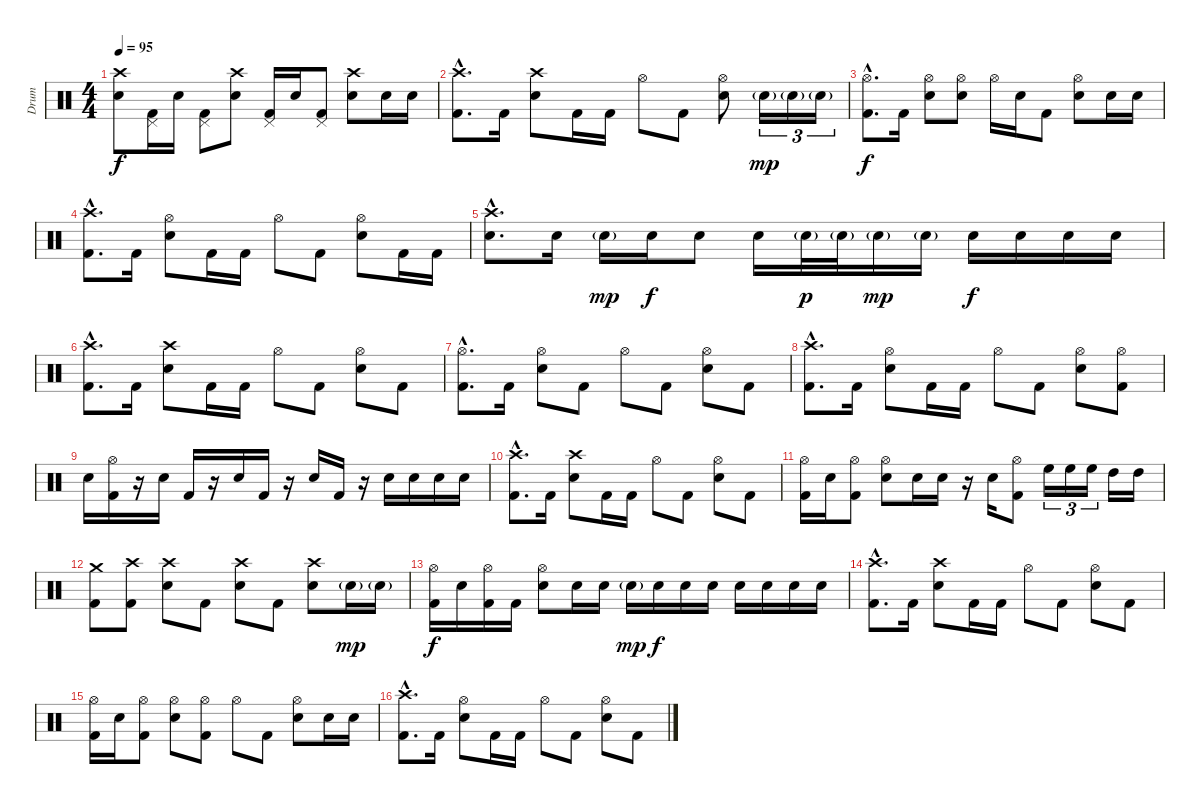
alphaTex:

\track ("Drum" "Drum") {instrument percussion}
\staff {score}
\articulation defaults
\ts (4 4)
\tempo 95
\clef neutral
\ks c
("Crash high (hit)" "Electric Snare (hit)").8{dy f} ("Pedal Hi-Hat (hit)" "Kick (hit) 2").16 "Electric Snare (hit)".16 ("Pedal Hi-Hat (hit)" "Kick (hit) 2").8 ("Crash high (hit)" "Electric Snare (hit)").8 ("Pedal Hi-Hat (hit)" "Kick (hit) 2").16 "Electric Snare (hit)".16 ("Pedal Hi-Hat (hit)" "Kick (hit) 2").8 ("Crash high (hit)" "Electric Snare (hit)").8 "Electric Snare (hit)".16 "Electric Snare (hit)".16 |
("Crash high (hit)"{hac} "Kick (hit) 2"{hac}).8{d} "Kick (hit) 2".16 ("Crash high (hit)" "Electric Snare (hit)").8 "Kick (hit) 2".16 "Kick (hit) 2".16 "Hi-Hat (open)".8 "Kick (hit) 2".8 ("Hi-Hat (open)" "Electric Snare (hit)").8 "Electric Snare (hit)"{g}.16{tu (3 2) dy mp} "Electric Snare (hit)"{g}.16{tu (3 2)} "Electric Snare (hit)"{g}.16{tu (3 2)} |
("Hi-Hat (open)"{hac} "Kick (hit) 2"{hac}).8{d dy f} "Kick (hit) 2".16 ("Hi-Hat (open)" "Electric Snare (hit)").8 ("Hi-Hat (open)" "Electric Snare (hit)").8 "Hi-Hat (open)".16 "Electric Snare (hit)".16 "Kick (hit) 2".8 ("Hi-Hat (open)" "Electric Snare (hit)").8 "Electric Snare (hit)".16 "Electric Snare (hit)".16 |
("Crash high (hit)"{hac} "Kick (hit) 2"{hac}).8{d} "Kick (hit) 2".16 ("Hi-Hat (open)" "Electric Snare (hit)").8 "Kick (hit) 2".16 "Kick (hit) 2".16 "Hi-Hat (open)".8 "Kick (hit) 2".8 ("Hi-Hat (open)" "Electric Snare (hit)").8 "Kick (hit) 2".16 "Kick (hit) 2".16 |
("Crash high (hit)"{hac} "Electric Snare (hit)"{hac}).8{d} "Electric Snare (hit)".16 "Electric Snare (hit)"{g}.16{dy mp} "Electric Snare (hit)".16{dy f} "Electric Snare (hit)".8 "Electric Snare (hit)".16 "Electric Snare (hit)"{g}.32{dy p} "Electric Snare (hit)"{g}.32 "Electric Snare (hit)"{g}.16{dy mp} "Electric Snare (hit)"{g}.16 "Electric Snare (hit)".16{dy f} "Electric Snare (hit)".16 "Electric Snare (hit)".16 "Electric Snare (hit)".16 |
("Crash high (hit)"{hac} "Kick (hit) 2"{hac}).8{d} "Kick (hit) 2".16 ("Crash high (hit)" "Electric Snare (hit)").8 "Kick (hit) 2".16 "Kick (hit) 2".16 "Hi-Hat (open)".8 "Kick (hit) 2".8 ("Hi-Hat (open)" "Electric Snare (hit)").8 "Kick (hit) 2".8 |
("Hi-Hat (open)"{hac} "Kick (hit) 2"{hac}).8{d} "Kick (hit) 2".16 ("Hi-Hat (open)" "Electric Snare (hit)").8 "Kick (hit) 2".8 "Hi-Hat (open)".8 "Kick (hit) 2".8 ("Hi-Hat (open)" "Electric Snare (hit)").8 "Kick (hit) 2".8 |
("Crash high (hit)"{hac} "Kick (hit) 2"{hac}).8{d} "Kick (hit) 2".16 ("Hi-Hat (open)" "Electric Snare (hit)").8 "Kick (hit) 2".16 "Kick (hit) 2".16 "Hi-Hat (open)".8 "Kick (hit) 2".8 ("Hi-Hat (open)" "Electric Snare (hit)").8 ("Hi-Hat (open)" "Kick (hit) 2").8 |
"Electric Snare (hit)".16 ("Hi-Hat (open)" "Kick (hit) 2").16 r.16 "Electric Snare (hit)".16 "Kick (hit) 2".16 r.16 "Electric Snare (hit)".16 "Kick (hit) 2".16 r.16 "Electric Snare (hit)".16 "Kick (hit) 2".16 r.16 "Electric Snare (hit)".16 "Electric Snare (hit)".16 "Electric Snare (hit)".16 "Electric Snare (hit)".16 |
("Crash high (hit)"{hac} "Kick (hit) 2"{hac}).8{d} "Kick (hit) 2".16 ("Crash high (hit)" "Electric Snare (hit)").8 "Kick (hit) 2".16 "Kick (hit) 2".16 "Hi-Hat (open)".8 "Kick (hit) 2".8 ("Hi-Hat (open)" "Electric Snare (hit)").8 "Kick (hit) 2".8 |
("Hi-Hat (open)" "Kick (hit) 2").16 "Electric Snare (hit)".16 ("Hi-Hat (open)" "Kick (hit) 2").8 ("Hi-Hat (open)" "Electric Snare (hit)").8 "Electric Snare (hit)".16 "Electric Snare (hit)".16 r.16 "Electric Snare (hit)".16 ("Hi-Hat (open)" "Kick (hit) 2").8 "High Floor Tom (hit)".16{tu (3 2)} "High Floor Tom (hit)".16{tu (3 2)} "High Floor Tom (hit)".16{tu (3 2)} "High Tom (hit)".16 "High Tom (hit)".16 |
("Crash medium (hit)" "Kick (hit) 2").8 ("Crash high (hit)" "Kick (hit) 2").8 ("Crash high (hit)" "Electric Snare (hit)").8 "Kick (hit) 2".8 ("Crash high (hit)" "Electric Snare (hit)").8 "Kick (hit) 2".8 ("Crash high (hit)" "Electric Snare (hit)").8 "Electric Snare (hit)"{g}.16{dy mp} "Electric Snare (hit)"{g}.16 |
("Hi-Hat (open)" "Kick (hit) 2").16{dy f} "Electric Snare (hit)".16 ("Hi-Hat (open)" "Kick (hit) 2").16 "Kick (hit) 2".16 ("Hi-Hat (open)" "Electric Snare (hit)").8 "Electric Snare (hit)".16 "Electric Snare (hit)".16 "Electric Snare (hit)"{g}.16{dy mp} "Electric Snare (hit)".16{dy f} "Electric Snare (hit)".16 "Electric Snare (hit)".16 "Electric Snare (hit)".16 "Electric Snare (hit)".16 "Electric Snare (hit)".16 "Electric Snare (hit)".16 |
("Crash high (hit)"{hac} "Kick (hit) 2"{hac}).8{d} "Kick (hit) 2".16 ("Crash high (hit)" "Electric Snare (hit)").8 "Kick (hit) 2".16 "Kick (hit) 2".16 "Hi-Hat (open)".8 "Kick (hit) 2".8 ("Hi-Hat (open)" "Electric Snare (hit)").8 "Kick (hit) 2".8 |
("Hi-Hat (open)" "Kick (hit) 2").16 "Electric Snare (hit)".16 ("Hi-Hat (open)" "Kick (hit) 2").8 ("Hi-Hat (open)" "Electric Snare (hit)").8 ("Hi-Hat (open)" "Kick (hit) 2").8 "Hi-Hat (open)".8 "Kick (hit) 2".8 ("Hi-Hat (open)" "Electric Snare (hit)").8 "Electric Snare (hit)".16 "Electric Snare (hit)".16 |
("Crash high (hit)"{hac} "Kick (hit) 2"{hac}).8{d} "Kick (hit) 2".16 ("Hi-Hat (open)" "Electric Snare (hit)").8 "Kick (hit) 2".16 "Kick (hit) 2".16 "Hi-Hat (open)".8 "Kick (hit) 2".8 ("Hi-Hat (open)" "Electric Snare (hit)").8 "Kick (hit) 2".8
